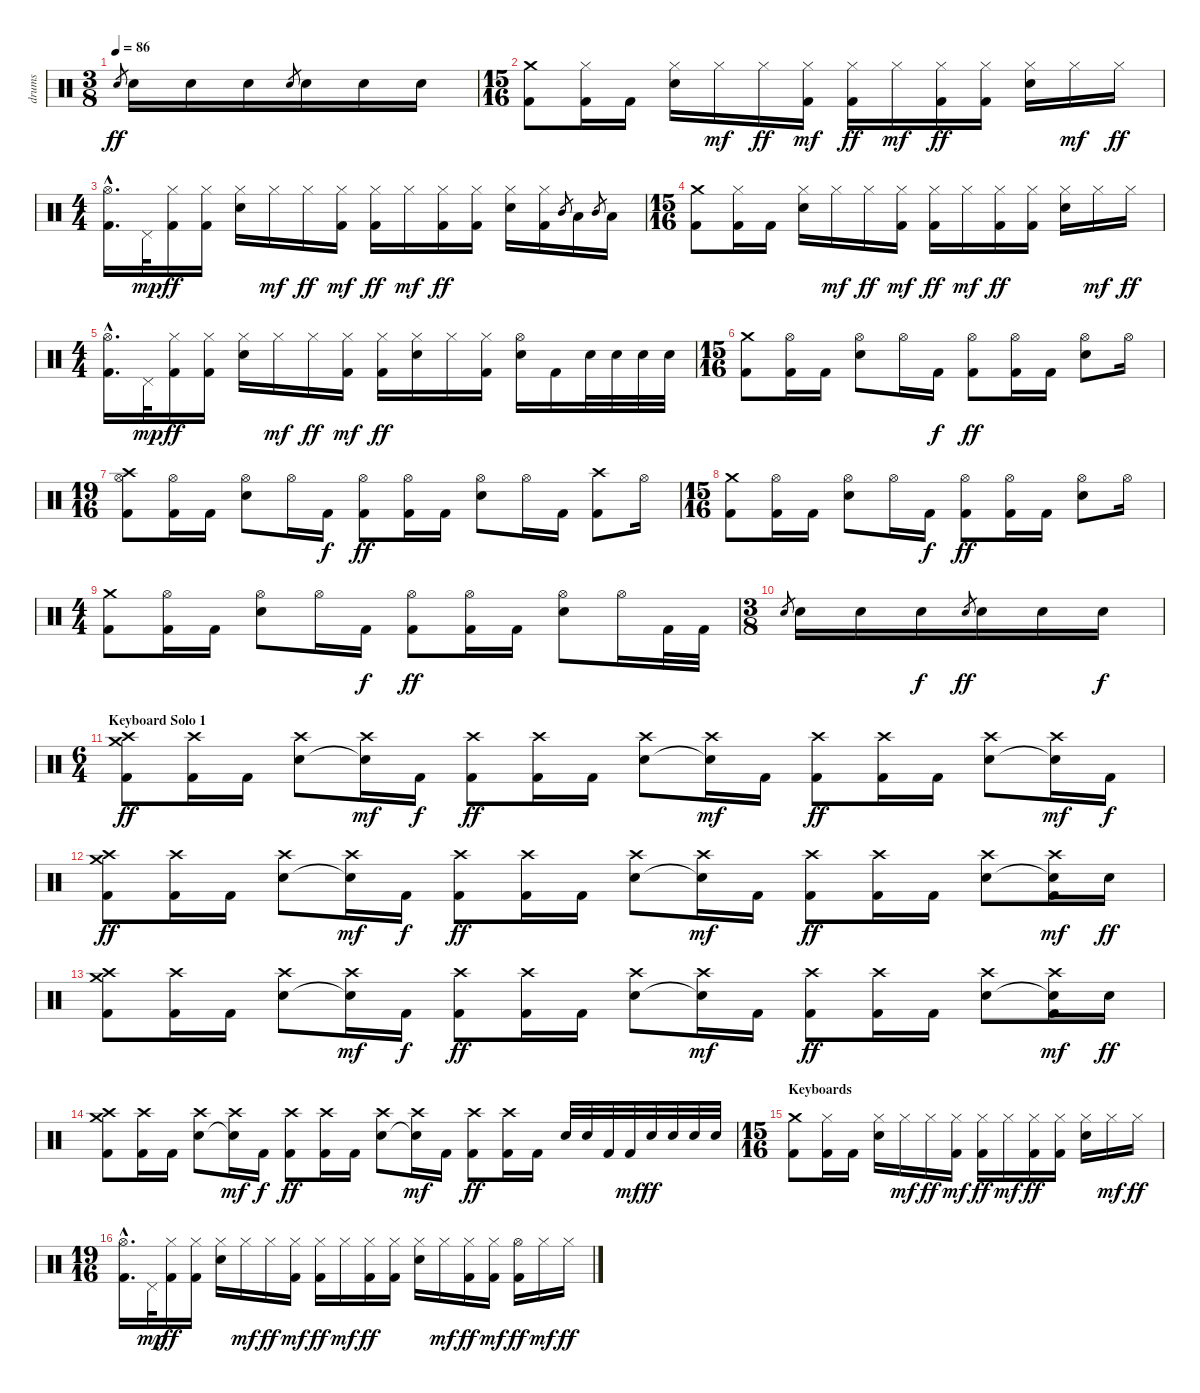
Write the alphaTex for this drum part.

\track ("drums" "drums") {instrument percussion}
\staff {score}
\articulation defaults
\ts (3 8)
\tempo 86
\clef neutral
\ks c "Snare (hit) 2".8{gr dy ff} "Snare (hit) 2".16 "Snare (hit) 2".16 "Snare (hit) 2".16 "Snare (hit) 2".8{gr} "Snare (hit) 2".16 "Snare (hit) 2".16 "Snare (hit) 2".16
|
\ts (15 16)
("Crash medium (hit)" "Kick (hit) 2").8 ("Hi-Hat (closed)" "Kick (hit) 2").16 "Kick (hit) 2".16 ("Hi-Hat (closed)" "Snare (hit) 2").16 "Hi-Hat (closed)".16{dy mf} "Hi-Hat (closed)".16{dy ff} ("Hi-Hat (closed)" "Kick (hit) 2").16{dy mf} ("Hi-Hat (closed)" "Kick (hit) 2").16{dy ff} "Hi-Hat (closed)".16{dy mf} ("Hi-Hat (closed)" "Kick (hit) 2").16{dy ff} ("Hi-Hat (closed)" "Kick (hit) 2").16 ("Hi-Hat (closed)" "Snare (hit) 2").16 "Hi-Hat (closed)".16{dy mf} "Hi-Hat (closed)".16{dy ff} |
\ts (4 4)
("Hi-Hat (open)"{hac} "Kick (hit) 2"{hac}).16{d} "Pedal Hi-Hat (hit)".32{dy mp} ("Hi-Hat (closed)" "Kick (hit) 2").16{dy ff} ("Hi-Hat (closed)" "Kick (hit) 2").16 ("Hi-Hat (closed)" "Snare (hit) 2").16 "Hi-Hat (closed)".16{dy mf} "Hi-Hat (closed)".16{dy ff} ("Hi-Hat (closed)" "Kick (hit) 2").16{dy mf} ("Hi-Hat (closed)" "Kick (hit) 2").16{dy ff} "Hi-Hat (closed)".16{dy mf} ("Hi-Hat (closed)" "Kick (hit) 2").16{dy ff} ("Hi-Hat (closed)" "Kick (hit) 2").16 ("Hi-Hat (closed)" "Snare (hit) 2").16 ("Hi-Hat (closed)" "Kick (hit) 2").16 "Mid Tom (hit)".8{gr} "Low Tom (hit)".16 "Mid Tom (hit)".8{gr} "Low Tom (hit)".16 |
\ts (15 16)
("Crash medium (hit)" "Kick (hit) 2").8 ("Hi-Hat (closed)" "Kick (hit) 2").16 "Kick (hit) 2".16 ("Hi-Hat (closed)" "Snare (hit) 2").16 "Hi-Hat (closed)".16{dy mf} "Hi-Hat (closed)".16{dy ff} ("Hi-Hat (closed)" "Kick (hit) 2").16{dy mf} ("Hi-Hat (closed)" "Kick (hit) 2").16{dy ff} "Hi-Hat (closed)".16{dy mf} ("Hi-Hat (closed)" "Kick (hit) 2").16{dy ff} ("Hi-Hat (closed)" "Kick (hit) 2").16 ("Hi-Hat (closed)" "Snare (hit) 2").16 "Hi-Hat (closed)".16{dy mf} "Hi-Hat (closed)".16{dy ff} |
\ts (4 4)
("Hi-Hat (open)"{hac} "Kick (hit) 2"{hac}).16{d} "Pedal Hi-Hat (hit)".32{dy mp} ("Hi-Hat (closed)" "Kick (hit) 2").16{dy ff} ("Hi-Hat (closed)" "Kick (hit) 2").16 ("Hi-Hat (closed)" "Snare (hit) 2").16 "Hi-Hat (closed)".16{dy mf} "Hi-Hat (closed)".16{dy ff} ("Hi-Hat (closed)" "Kick (hit) 2").16{dy mf} ("Hi-Hat (closed)" "Kick (hit) 2").16{dy ff} ("Hi-Hat (closed)" "Snare (hit) 2").16 "Hi-Hat (closed)".16 ("Hi-Hat (closed)" "Kick (hit) 2").16 ("Hi-Hat (open)" "Snare (hit) 2").16 "Kick (hit) 2".16 "Snare (hit) 2".32 "Snare (hit) 2".32 "Snare (hit) 2".32 "Snare (hit) 2".32 |
\ts (15 16)
("Crash medium (hit)" "Kick (hit) 2").8 ("Hi-Hat (open)" "Kick (hit) 2").16 "Kick (hit) 2".16 ("Hi-Hat (open)" "Snare (hit) 2").8 "Hi-Hat (open)".16 "Kick (hit) 2".16{dy f} ("Hi-Hat (open)" "Kick (hit) 2").8{dy ff} ("Hi-Hat (open)" "Kick (hit) 2").16 "Kick (hit) 2".16 ("Hi-Hat (open)" "Snare (hit) 2").8 "Hi-Hat (open)".16 |
\ts (19 16)
("Crash high (hit)" "Hi-Hat (open)" "Kick (hit) 2").8 ("Hi-Hat (open)" "Kick (hit) 2").16 "Kick (hit) 2".16 ("Hi-Hat (open)" "Snare (hit) 2").8 "Hi-Hat (open)".16 "Kick (hit) 2".16{dy f} ("Hi-Hat (open)" "Kick (hit) 2").8{dy ff} ("Hi-Hat (open)" "Kick (hit) 2").16 "Kick (hit) 2".16 ("Hi-Hat (open)" "Snare (hit) 2").8 "Hi-Hat (open)".16 "Kick (hit) 2".16 ("Crash high (hit)" "Kick (hit) 2").8 "Hi-Hat (open)".16 |
\ts (15 16)
("Crash medium (hit)" "Kick (hit) 2").8 ("Hi-Hat (open)" "Kick (hit) 2").16 "Kick (hit) 2".16 ("Hi-Hat (open)" "Snare (hit) 2").8 "Hi-Hat (open)".16 "Kick (hit) 2".16{dy f} ("Hi-Hat (open)" "Kick (hit) 2").8{dy ff} ("Hi-Hat (open)" "Kick (hit) 2").16 "Kick (hit) 2".16 ("Hi-Hat (open)" "Snare (hit) 2").8 "Hi-Hat (open)".16 |
\ts (4 4)
("Crash medium (hit)" "Kick (hit) 2").8 ("Hi-Hat (open)" "Kick (hit) 2").16 "Kick (hit) 2".16 ("Hi-Hat (open)" "Snare (hit) 2").8 "Hi-Hat (open)".16 "Kick (hit) 2".16{dy f} ("Hi-Hat (open)" "Kick (hit) 2").8{dy ff} ("Hi-Hat (open)" "Kick (hit) 2").16 "Kick (hit) 2".16 ("Hi-Hat (open)" "Snare (hit) 2").8 "Hi-Hat (open)".16 "Kick (hit) 2".32 "Kick (hit) 2".32 |
\ts (3 8)
"Snare (hit) 2".8{gr} "Snare (hit) 2".16 "Snare (hit) 2".16 "Snare (hit) 2".16{dy f} "Snare (hit) 2".8{gr dy ff} "Snare (hit) 2".16 "Snare (hit) 2".16 "Snare (hit) 2".16{dy f} |
\ts (6 4)
\section ("" "Keyboard Solo 1")
("Crash medium (hit)" "Crash high (hit)" "Kick (hit) 2").8{dy ff} ("Crash high (hit)" "Kick (hit) 2").16 "Kick (hit) 2".16 ("Crash high (hit)" "Snare (hit) 2").8 ("Crash high (hit)" "Snare (hit)"{t}).16{dy mf} "Kick (hit) 2".16{dy f} ("Crash high (hit)" "Kick (hit) 2").8{dy ff} ("Crash high (hit)" "Kick (hit) 2").16 "Kick (hit) 2".16 ("Crash high (hit)" "Snare (hit) 2").8 ("Crash high (hit)" "Snare (hit)"{t}).16{dy mf} "Kick (hit) 2".16 ("Crash high (hit)" "Kick (hit) 2").8{dy ff} ("Crash high (hit)" "Kick (hit) 2").16 "Kick (hit) 2".16 ("Crash high (hit)" "Snare (hit) 2").8 ("Crash high (hit)" "Snare (hit)"{t}).16{dy mf} "Kick (hit) 2".16{dy f} |
("Crash medium (hit)" "Crash high (hit)" "Kick (hit) 2").8{dy ff} ("Crash high (hit)" "Kick (hit) 2").16 "Kick (hit) 2".16 ("Crash high (hit)" "Snare (hit) 2").8 ("Crash high (hit)" "Snare (hit)"{t}).16{dy mf} "Kick (hit) 2".16{dy f} ("Crash high (hit)" "Kick (hit) 2").8{dy ff} ("Crash high (hit)" "Kick (hit) 2").16 "Kick (hit) 2".16 ("Crash high (hit)" "Snare (hit) 2").8 ("Crash high (hit)" "Snare (hit)"{t}).16{dy mf} "Kick (hit) 2".16 ("Crash high (hit)" "Kick (hit) 2").8{dy ff} ("Crash high (hit)" "Kick (hit) 2").16 "Kick (hit) 2".16 ("Crash high (hit)" "Snare (hit) 2").8 ("Crash high (hit)" "Snare (hit)"{t} "Kick (hit) 2").16{dy mf} "Snare (hit) 2".16{dy ff} |
("Crash medium (hit)" "Crash high (hit)" "Kick (hit) 2").8 ("Crash high (hit)" "Kick (hit) 2").16 "Kick (hit) 2".16 ("Crash high (hit)" "Snare (hit) 2").8 ("Crash high (hit)" "Snare (hit)"{t}).16{dy mf} "Kick (hit) 2".16{dy f} ("Crash high (hit)" "Kick (hit) 2").8{dy ff} ("Crash high (hit)" "Kick (hit) 2").16 "Kick (hit) 2".16 ("Crash high (hit)" "Snare (hit) 2").8 ("Crash high (hit)" "Snare (hit)"{t}).16{dy mf} "Kick (hit) 2".16 ("Crash high (hit)" "Kick (hit) 2").8{dy ff} ("Crash high (hit)" "Kick (hit) 2").16 "Kick (hit) 2".16 ("Crash high (hit)" "Snare (hit) 2").8 ("Crash high (hit)" "Snare (hit)"{t} "Kick (hit) 2").16{dy mf} "Snare (hit) 2".16{dy ff} |
("Crash medium (hit)" "Crash high (hit)" "Kick (hit) 2").8 ("Crash high (hit)" "Kick (hit) 2").16 "Kick (hit) 2".16 ("Crash high (hit)" "Snare (hit) 2").8 ("Crash high (hit)" "Snare (hit)"{t}).16{dy mf} "Kick (hit) 2".16{dy f} ("Crash high (hit)" "Kick (hit) 2").8{dy ff} ("Crash high (hit)" "Kick (hit) 2").16 "Kick (hit) 2".16 ("Crash high (hit)" "Snare (hit) 2").8 ("Crash high (hit)" "Snare (hit)"{t}).16{dy mf} "Kick (hit) 2".16 ("Crash high (hit)" "Kick (hit) 2").8{dy ff} ("Crash high (hit)" "Kick (hit) 2").16 "Kick (hit) 2".16 "Snare (hit) 2".32 "Snare (hit) 2".32 "Kick (hit) 2".32 "Kick (hit) 2".32{dy mf} "Snare (hit) 2".32{dy ff} "Snare (hit) 2".32 "Snare (hit) 2".32 "Snare (hit) 2".32 |
\ts (15 16)
\section ("" "Keyboards")
("Crash medium (hit)" "Kick (hit) 2").8 ("Hi-Hat (closed)" "Kick (hit) 2").16 "Kick (hit) 2".16 ("Hi-Hat (closed)" "Snare (hit) 2").16 "Hi-Hat (closed)".16{dy mf} "Hi-Hat (closed)".16{dy ff} ("Hi-Hat (closed)" "Kick (hit) 2").16{dy mf} ("Hi-Hat (closed)" "Kick (hit) 2").16{dy ff} "Hi-Hat (closed)".16{dy mf} ("Hi-Hat (closed)" "Kick (hit) 2").16{dy ff} ("Hi-Hat (closed)" "Kick (hit) 2").16 ("Hi-Hat (closed)" "Snare (hit) 2").16 "Hi-Hat (closed)".16{dy mf} "Hi-Hat (closed)".16{dy ff} |
\ts (19 16)
("Hi-Hat (open)"{hac} "Kick (hit) 2"{hac}).16{d} "Pedal Hi-Hat (hit)".32{dy mp} ("Hi-Hat (closed)" "Kick (hit) 2").16{dy ff} ("Hi-Hat (closed)" "Kick (hit) 2").16 ("Hi-Hat (closed)" "Snare (hit) 2").16 "Hi-Hat (closed)".16{dy mf} "Hi-Hat (closed)".16{dy ff} ("Hi-Hat (closed)" "Kick (hit) 2").16{dy mf} ("Hi-Hat (closed)" "Kick (hit) 2").16{dy ff} "Hi-Hat (closed)".16{dy mf} ("Hi-Hat (closed)" "Kick (hit) 2").16{dy ff} ("Hi-Hat (closed)" "Kick (hit) 2").16 ("Hi-Hat (closed)" "Snare (hit) 2").16 "Hi-Hat (closed)".16{dy mf} ("Hi-Hat (closed)" "Kick (hit) 2").16{dy ff} ("Hi-Hat (closed)" "Kick (hit) 2").16{dy mf} ("Hi-Hat (open)" "Kick (hit) 2").16{dy ff} "Hi-Hat (closed)".16{dy mf} "Hi-Hat (closed)".16{dy ff}
